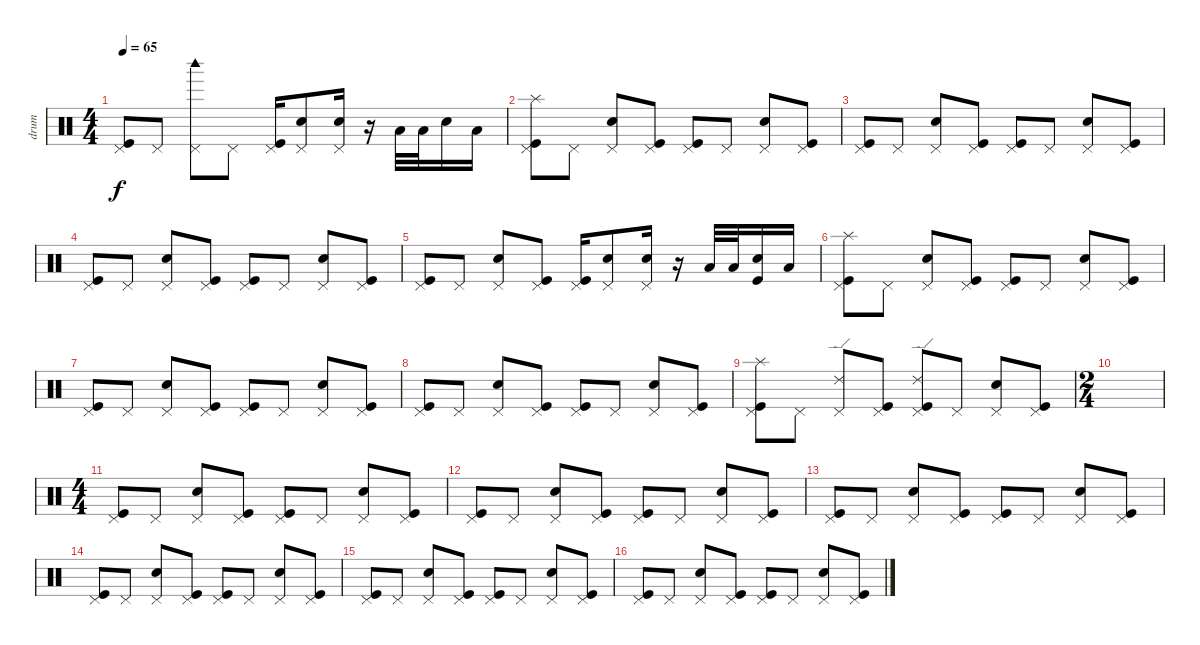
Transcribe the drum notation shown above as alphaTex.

\track ("drum" "drum") {instrument percussion}
\staff {score}
\articulation defaults
\ts (4 4)
\tempo 65
\clef neutral
\ks c
("Pedal Hi-Hat (hit)" "Kick (hit)").8{dy f} "Pedal Hi-Hat (hit)".8 ("Pedal Hi-Hat (hit)" "Woodblock high (hit)").8 "Pedal Hi-Hat (hit)".8 ("Pedal Hi-Hat (hit)" "Kick (hit)").16 ("Pedal Hi-Hat (hit)" "Electric Snare (hit)").8 ("Pedal Hi-Hat (hit)" "Electric Snare (hit)").16 r.16 "Low Floor Tom (hit)".32 "Low Floor Tom (hit)".32 "Electric Snare (hit)".16 "Low Floor Tom (hit)".16 |
("Pedal Hi-Hat (hit)" "Splash (hit)" "Kick (hit)").8 "Pedal Hi-Hat (hit)".8 ("Pedal Hi-Hat (hit)" "Electric Snare (hit)").8 ("Pedal Hi-Hat (hit)" "Kick (hit)").8 ("Pedal Hi-Hat (hit)" "Kick (hit)").8 "Pedal Hi-Hat (hit)".8 ("Pedal Hi-Hat (hit)" "Electric Snare (hit)").8 ("Pedal Hi-Hat (hit)" "Kick (hit)").8 |
("Pedal Hi-Hat (hit)" "Kick (hit)").8 "Pedal Hi-Hat (hit)".8 ("Pedal Hi-Hat (hit)" "Electric Snare (hit)").8 ("Pedal Hi-Hat (hit)" "Kick (hit)").8 ("Pedal Hi-Hat (hit)" "Kick (hit)").8 "Pedal Hi-Hat (hit)".8 ("Pedal Hi-Hat (hit)" "Electric Snare (hit)").8 ("Pedal Hi-Hat (hit)" "Kick (hit)").8 |
("Pedal Hi-Hat (hit)" "Kick (hit)").8 "Pedal Hi-Hat (hit)".8 ("Pedal Hi-Hat (hit)" "Electric Snare (hit)").8 ("Pedal Hi-Hat (hit)" "Kick (hit)").8 ("Pedal Hi-Hat (hit)" "Kick (hit)").8 "Pedal Hi-Hat (hit)".8 ("Pedal Hi-Hat (hit)" "Electric Snare (hit)").8 ("Pedal Hi-Hat (hit)" "Kick (hit)").8 |
("Pedal Hi-Hat (hit)" "Kick (hit)").8 "Pedal Hi-Hat (hit)".8 ("Pedal Hi-Hat (hit)" "Electric Snare (hit)").8 ("Pedal Hi-Hat (hit)" "Kick (hit)").8 ("Pedal Hi-Hat (hit)" "Kick (hit)").16 ("Pedal Hi-Hat (hit)" "Electric Snare (hit)").8 ("Pedal Hi-Hat (hit)" "Electric Snare (hit)").16 r.16 "Low Floor Tom (hit)".32 "Low Floor Tom (hit)".32 ("Electric Snare (hit)" "Kick (hit)").16 "Low Floor Tom (hit)".16 |
("Pedal Hi-Hat (hit)" "Splash (hit)" "Kick (hit)").8 "Pedal Hi-Hat (hit)".8 ("Pedal Hi-Hat (hit)" "Electric Snare (hit)").8 ("Pedal Hi-Hat (hit)" "Kick (hit)").8 ("Pedal Hi-Hat (hit)" "Kick (hit)").8 "Pedal Hi-Hat (hit)".8 ("Pedal Hi-Hat (hit)" "Electric Snare (hit)").8 ("Pedal Hi-Hat (hit)" "Kick (hit)").8 |
("Pedal Hi-Hat (hit)" "Kick (hit)").8 "Pedal Hi-Hat (hit)".8 ("Pedal Hi-Hat (hit)" "Electric Snare (hit)").8 ("Pedal Hi-Hat (hit)" "Kick (hit)").8 ("Pedal Hi-Hat (hit)" "Kick (hit)").8 "Pedal Hi-Hat (hit)".8 ("Pedal Hi-Hat (hit)" "Electric Snare (hit)").8 ("Pedal Hi-Hat (hit)" "Kick (hit)").8 |
("Pedal Hi-Hat (hit)" "Kick (hit)").8 "Pedal Hi-Hat (hit)".8 ("Pedal Hi-Hat (hit)" "Electric Snare (hit)").8 ("Pedal Hi-Hat (hit)" "Kick (hit)").8 ("Pedal Hi-Hat (hit)" "Kick (hit)").8 "Pedal Hi-Hat (hit)".8 ("Pedal Hi-Hat (hit)" "Electric Snare (hit)").8 ("Pedal Hi-Hat (hit)" "Kick (hit)").8 |
("Pedal Hi-Hat (hit)" "Splash (hit)" "Kick (hit)").8 "Pedal Hi-Hat (hit)".8 ("Pedal Hi-Hat (hit)" "Ride (edge) 2").8 ("Pedal Hi-Hat (hit)" "Kick (hit)").8 ("Pedal Hi-Hat (hit)" "Ride (edge) 2" "Kick (hit)").8 "Pedal Hi-Hat (hit)".8 ("Pedal Hi-Hat (hit)" "Electric Snare (hit)").8 ("Pedal Hi-Hat (hit)" "Kick (hit)").8 |
\ts (2 4)
|
\ts (4 4)
("Pedal Hi-Hat (hit)" "Kick (hit)").8 "Pedal Hi-Hat (hit)".8 ("Pedal Hi-Hat (hit)" "Electric Snare (hit)").8 ("Pedal Hi-Hat (hit)" "Kick (hit)").8 ("Pedal Hi-Hat (hit)" "Kick (hit)").8 "Pedal Hi-Hat (hit)".8 ("Pedal Hi-Hat (hit)" "Electric Snare (hit)").8 ("Pedal Hi-Hat (hit)" "Kick (hit)").8 |
("Pedal Hi-Hat (hit)" "Kick (hit)").8 "Pedal Hi-Hat (hit)".8 ("Pedal Hi-Hat (hit)" "Electric Snare (hit)").8 ("Pedal Hi-Hat (hit)" "Kick (hit)").8 ("Pedal Hi-Hat (hit)" "Kick (hit)").8 "Pedal Hi-Hat (hit)".8 ("Pedal Hi-Hat (hit)" "Electric Snare (hit)").8 ("Pedal Hi-Hat (hit)" "Kick (hit)").8 |
("Pedal Hi-Hat (hit)" "Kick (hit)").8 "Pedal Hi-Hat (hit)".8 ("Pedal Hi-Hat (hit)" "Electric Snare (hit)").8 ("Pedal Hi-Hat (hit)" "Kick (hit)").8 ("Pedal Hi-Hat (hit)" "Kick (hit)").8 "Pedal Hi-Hat (hit)".8 ("Pedal Hi-Hat (hit)" "Electric Snare (hit)").8 ("Pedal Hi-Hat (hit)" "Kick (hit)").8 |
("Pedal Hi-Hat (hit)" "Kick (hit)").8 "Pedal Hi-Hat (hit)".8 ("Pedal Hi-Hat (hit)" "Electric Snare (hit)").8 ("Pedal Hi-Hat (hit)" "Kick (hit)").8 ("Pedal Hi-Hat (hit)" "Kick (hit)").8 "Pedal Hi-Hat (hit)".8 ("Pedal Hi-Hat (hit)" "Electric Snare (hit)").8 ("Pedal Hi-Hat (hit)" "Kick (hit)").8 |
("Pedal Hi-Hat (hit)" "Kick (hit)").8 "Pedal Hi-Hat (hit)".8 ("Pedal Hi-Hat (hit)" "Electric Snare (hit)").8 ("Pedal Hi-Hat (hit)" "Kick (hit)").8 ("Pedal Hi-Hat (hit)" "Kick (hit)").8 "Pedal Hi-Hat (hit)".8 ("Pedal Hi-Hat (hit)" "Electric Snare (hit)").8 ("Pedal Hi-Hat (hit)" "Kick (hit)").8 |
("Pedal Hi-Hat (hit)" "Kick (hit)").8 "Pedal Hi-Hat (hit)".8 ("Pedal Hi-Hat (hit)" "Electric Snare (hit)").8 ("Pedal Hi-Hat (hit)" "Kick (hit)").8 ("Pedal Hi-Hat (hit)" "Kick (hit)").8 "Pedal Hi-Hat (hit)".8 ("Pedal Hi-Hat (hit)" "Electric Snare (hit)").8 ("Pedal Hi-Hat (hit)" "Kick (hit)").8
